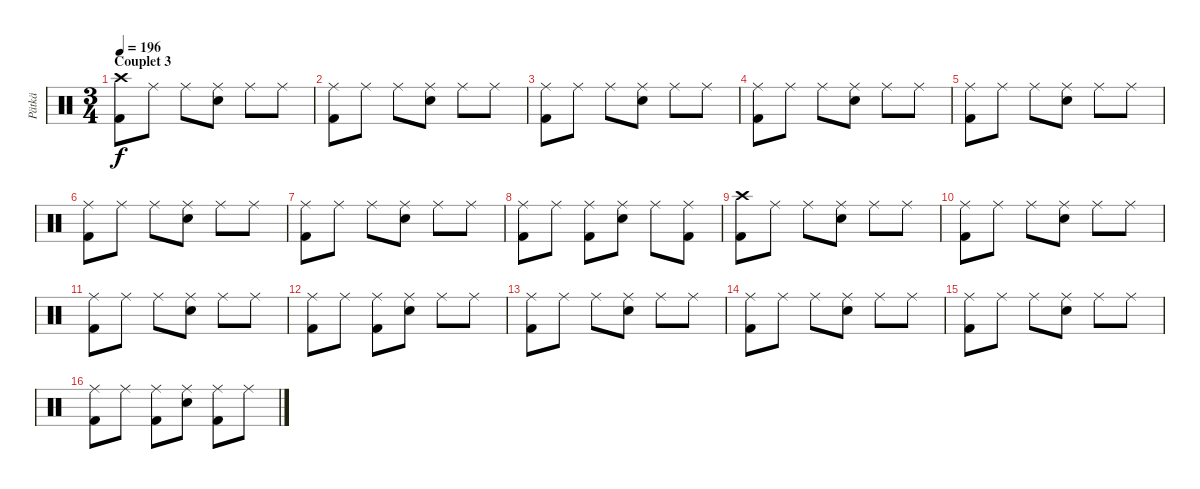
\track ("Pätkä" "Pätkä") {instrument percussion}
\staff {score}
\articulation defaults
\ts (3 4)
\section ("" "Couplet 3")
\tempo 196
\clef neutral
\ks c
("Crash high (hit)" "Kick (hit) 2").8{dy f} "Ride (middle)".8 "Ride (middle)".8 ("Ride (middle)" "Electric Snare (hit)").8 "Ride (middle)".8 "Ride (middle)".8 |
("Ride (middle)" "Kick (hit) 2").8 "Ride (middle)".8 "Ride (middle)".8 ("Ride (middle)" "Electric Snare (hit)").8 "Ride (middle)".8 "Ride (middle)".8 |
("Ride (middle)" "Kick (hit) 2").8 "Ride (middle)".8 "Ride (middle)".8 ("Ride (middle)" "Electric Snare (hit)").8 "Ride (middle)".8 "Ride (middle)".8 |
("Ride (middle)" "Kick (hit) 2").8 "Ride (middle)".8 "Ride (middle)".8 ("Ride (middle)" "Electric Snare (hit)").8 "Ride (middle)".8 "Ride (middle)".8 |
("Ride (middle)" "Kick (hit) 2").8 "Ride (middle)".8 "Ride (middle)".8 ("Ride (middle)" "Electric Snare (hit)").8 "Ride (middle)".8 "Ride (middle)".8 |
("Ride (middle)" "Kick (hit) 2").8 "Ride (middle)".8 "Ride (middle)".8 ("Ride (middle)" "Electric Snare (hit)").8 "Ride (middle)".8 "Ride (middle)".8 |
("Ride (middle)" "Kick (hit) 2").8 "Ride (middle)".8 "Ride (middle)".8 ("Ride (middle)" "Electric Snare (hit)").8 "Ride (middle)".8 "Ride (middle)".8 |
("Ride (middle)" "Kick (hit) 2").8 "Ride (middle)".8 ("Ride (middle)" "Kick (hit) 2").8 ("Ride (middle)" "Electric Snare (hit)").8 "Ride (middle)".8 ("Ride (middle)" "Kick (hit) 2").8 |
("Crash high (hit)" "Kick (hit) 2").8 "Ride (middle)".8 "Ride (middle)".8 ("Ride (middle)" "Electric Snare (hit)").8 "Ride (middle)".8 "Ride (middle)".8 |
("Ride (middle)" "Kick (hit) 2").8 "Ride (middle)".8 "Ride (middle)".8 ("Ride (middle)" "Electric Snare (hit)").8 "Ride (middle)".8 "Ride (middle)".8 |
("Ride (middle)" "Kick (hit) 2").8 "Ride (middle)".8 "Ride (middle)".8 ("Ride (middle)" "Electric Snare (hit)").8 "Ride (middle)".8 "Ride (middle)".8 |
("Ride (middle)" "Kick (hit) 2").8 "Ride (middle)".8 ("Ride (middle)" "Kick (hit) 2").8 ("Ride (middle)" "Electric Snare (hit)").8 "Ride (middle)".8 "Ride (middle)".8 |
("Ride (middle)" "Kick (hit) 2").8 "Ride (middle)".8 "Ride (middle)".8 ("Ride (middle)" "Electric Snare (hit)").8 "Ride (middle)".8 "Ride (middle)".8 |
("Ride (middle)" "Kick (hit) 2").8 "Ride (middle)".8 "Ride (middle)".8 ("Ride (middle)" "Electric Snare (hit)").8 "Ride (middle)".8 "Ride (middle)".8 |
("Ride (middle)" "Kick (hit) 2").8 "Ride (middle)".8 "Ride (middle)".8 ("Ride (middle)" "Electric Snare (hit)").8 "Ride (middle)".8 "Ride (middle)".8 |
("Ride (middle)" "Kick (hit) 2").8 "Ride (middle)".8 ("Ride (middle)" "Kick (hit) 2").8 ("Ride (middle)" "Electric Snare (hit)").8 ("Ride (middle)" "Kick (hit) 2").8 "Ride (middle)".8
